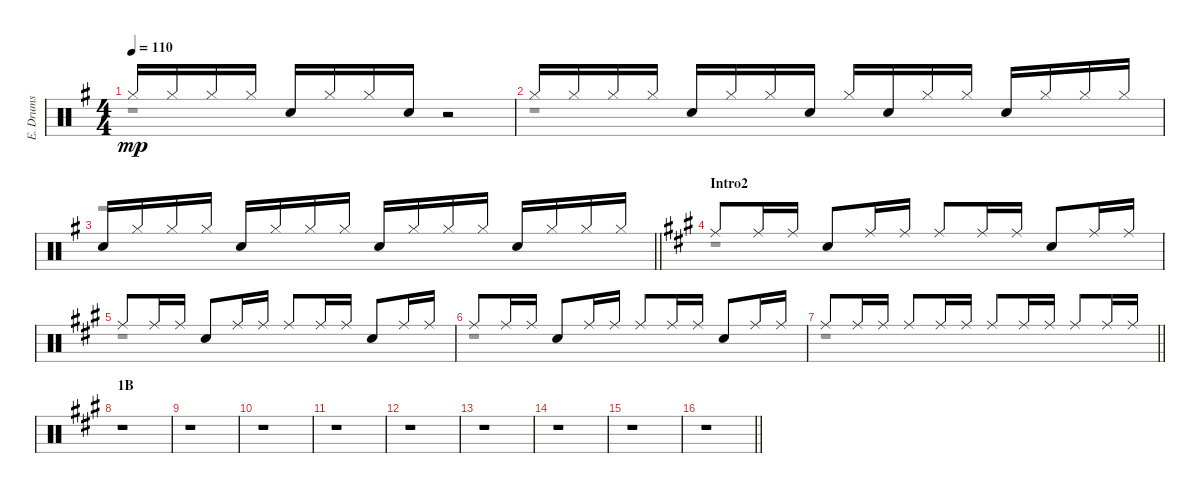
\track ("E. Drums" "E. Drums") {instrument percussion}
\staff {score}
\articulation defaults
\voice
\ts (4 4)
\tempo 110
\clef neutral
\ks g "Hi-Hat (closed)".16{dy mp} "Hi-Hat (closed)".16 "Hi-Hat (closed)".16 "Hi-Hat (closed)".16 "Electric Snare (hit)".16 "Hi-Hat (closed)".16 "Hi-Hat (closed)".16 "Electric Snare (hit)".16
r.2 |
"Hi-Hat (closed)".16 "Hi-Hat (closed)".16 "Hi-Hat (closed)".16 "Hi-Hat (closed)".16 "Electric Snare (hit)".16 "Hi-Hat (closed)".16 "Hi-Hat (closed)".16 "Electric Snare (hit)".16 "Hi-Hat (closed)".16 "Electric Snare (hit)".16 "Hi-Hat (closed)".16 "Hi-Hat (closed)".16 "Electric Snare (hit)".16 "Hi-Hat (closed)".16 "Hi-Hat (closed)".16 "Hi-Hat (closed)".16 |
\barLineRight lightlight "Electric Snare (hit)".16 "Hi-Hat (closed)".16 "Hi-Hat (closed)".16 "Hi-Hat (closed)".16 "Electric Snare (hit)".16 "Hi-Hat (closed)".16 "Hi-Hat (closed)".16 "Hi-Hat (closed)".16 "Electric Snare (hit)".16 "Hi-Hat (closed)".16 "Hi-Hat (closed)".16 "Hi-Hat (closed)".16 "Electric Snare (hit)".16 "Hi-Hat (closed)".16 "Hi-Hat (closed)".16 "Hi-Hat (closed)".16
|
\section ("" "Intro2")
\ks a "Ride (middle)".8 "Ride (middle)".16 "Ride (middle)".16 "Electric Snare (hit)".8 "Ride (middle)".16 "Ride (middle)".16 "Ride (middle)".8 "Ride (middle)".16 "Ride (middle)".16 "Electric Snare (hit)".8 "Ride (middle)".16 "Ride (middle)".16
|
"Ride (middle)".8 "Ride (middle)".16 "Ride (middle)".16 "Electric Snare (hit)".8 "Ride (middle)".16 "Ride (middle)".16 "Ride (middle)".8 "Ride (middle)".16 "Ride (middle)".16 "Electric Snare (hit)".8 "Ride (middle)".16 "Ride (middle)".16 |
"Ride (middle)".8 "Ride (middle)".16 "Ride (middle)".16 "Electric Snare (hit)".8 "Ride (middle)".16 "Ride (middle)".16 "Ride (middle)".8 "Ride (middle)".16 "Ride (middle)".16 "Electric Snare (hit)".8 "Ride (middle)".16 "Ride (middle)".16 |
\barLineRight lightlight "Ride (middle)".8 "Ride (middle)".16 "Ride (middle)".16 "Ride (middle)".8 "Ride (middle)".16 "Ride (middle)".16 "Ride (middle)".8 "Ride (middle)".16 "Ride (middle)".16 "Ride (middle)".8 "Ride (middle)".16 "Ride (middle)".16
|
\section ("" "1B")
r.1 |
r.1 |
r.1 |
r.1 |
r.1 |
r.1 |
r.1 |
r.1 |
\barLineRight lightlight
r.1
\voice
\clef neutral
\ottava regular
\simile none
\ks g
r.1{dy mp} |
r.1 |
\barLineRight lightlight
r.1 |
\ks a
r.1 |
r.1 |
r.1 |
\barLineRight lightlight
r.1 |
r.1 |
r.1 |
r.1 |
r.1 |
r.1 |
r.1 |
r.1 |
r.1 |
\barLineRight lightlight
r.1
